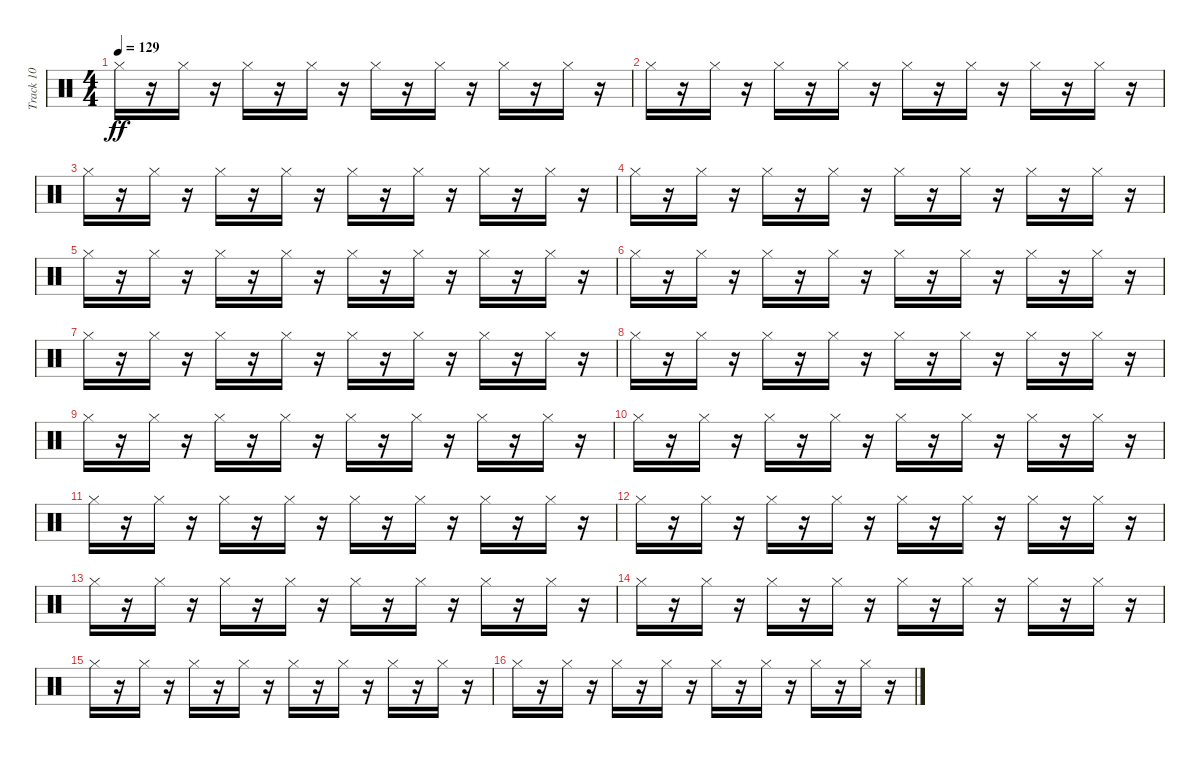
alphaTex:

\track ("Track 10" "Track 10") {instrument percussion}
\staff {score}
\articulation defaults
\ts (4 4)
\tempo 129
\clef neutral
\ks c "Hi-Hat (closed)".16{dy ff}
r.16 "Hi-Hat (closed)".16 r.16 "Hi-Hat (closed)".16 r.16 "Hi-Hat (closed)".16 r.16 "Hi-Hat (closed)".16 r.16 "Hi-Hat (closed)".16 r.16 "Hi-Hat (closed)".16 r.16 "Hi-Hat (closed)".16 r.16 |
"Hi-Hat (closed)".16 r.16 "Hi-Hat (closed)".16 r.16 "Hi-Hat (closed)".16 r.16 "Hi-Hat (closed)".16 r.16 "Hi-Hat (closed)".16 r.16 "Hi-Hat (closed)".16 r.16 "Hi-Hat (closed)".16 r.16 "Hi-Hat (closed)".16 r.16 |
"Hi-Hat (closed)".16 r.16 "Hi-Hat (closed)".16 r.16 "Hi-Hat (closed)".16 r.16 "Hi-Hat (closed)".16 r.16 "Hi-Hat (closed)".16 r.16 "Hi-Hat (closed)".16 r.16 "Hi-Hat (closed)".16 r.16 "Hi-Hat (closed)".16 r.16 |
"Hi-Hat (closed)".16 r.16 "Hi-Hat (closed)".16 r.16 "Hi-Hat (closed)".16 r.16 "Hi-Hat (closed)".16 r.16 "Hi-Hat (closed)".16 r.16 "Hi-Hat (closed)".16 r.16 "Hi-Hat (closed)".16 r.16 "Hi-Hat (closed)".16 r.16 |
"Hi-Hat (closed)".16 r.16 "Hi-Hat (closed)".16 r.16 "Hi-Hat (closed)".16 r.16 "Hi-Hat (closed)".16 r.16 "Hi-Hat (closed)".16 r.16 "Hi-Hat (closed)".16 r.16 "Hi-Hat (closed)".16 r.16 "Hi-Hat (closed)".16 r.16 |
"Hi-Hat (closed)".16 r.16 "Hi-Hat (closed)".16 r.16 "Hi-Hat (closed)".16 r.16 "Hi-Hat (closed)".16 r.16 "Hi-Hat (closed)".16 r.16 "Hi-Hat (closed)".16 r.16 "Hi-Hat (closed)".16 r.16 "Hi-Hat (closed)".16 r.16 |
"Hi-Hat (closed)".16 r.16 "Hi-Hat (closed)".16 r.16 "Hi-Hat (closed)".16 r.16 "Hi-Hat (closed)".16 r.16 "Hi-Hat (closed)".16 r.16 "Hi-Hat (closed)".16 r.16 "Hi-Hat (closed)".16 r.16 "Hi-Hat (closed)".16 r.16 |
"Hi-Hat (closed)".16 r.16 "Hi-Hat (closed)".16 r.16 "Hi-Hat (closed)".16 r.16 "Hi-Hat (closed)".16 r.16 "Hi-Hat (closed)".16 r.16 "Hi-Hat (closed)".16 r.16 "Hi-Hat (closed)".16 r.16 "Hi-Hat (closed)".16 r.16 |
"Hi-Hat (closed)".16 r.16 "Hi-Hat (closed)".16 r.16 "Hi-Hat (closed)".16 r.16 "Hi-Hat (closed)".16 r.16 "Hi-Hat (closed)".16 r.16 "Hi-Hat (closed)".16 r.16 "Hi-Hat (closed)".16 r.16 "Hi-Hat (closed)".16 r.16 |
"Hi-Hat (closed)".16 r.16 "Hi-Hat (closed)".16 r.16 "Hi-Hat (closed)".16 r.16 "Hi-Hat (closed)".16 r.16 "Hi-Hat (closed)".16 r.16 "Hi-Hat (closed)".16 r.16 "Hi-Hat (closed)".16 r.16 "Hi-Hat (closed)".16 r.16 |
"Hi-Hat (closed)".16 r.16 "Hi-Hat (closed)".16 r.16 "Hi-Hat (closed)".16 r.16 "Hi-Hat (closed)".16 r.16 "Hi-Hat (closed)".16 r.16 "Hi-Hat (closed)".16 r.16 "Hi-Hat (closed)".16 r.16 "Hi-Hat (closed)".16 r.16 |
"Hi-Hat (closed)".16 r.16 "Hi-Hat (closed)".16 r.16 "Hi-Hat (closed)".16 r.16 "Hi-Hat (closed)".16 r.16 "Hi-Hat (closed)".16 r.16 "Hi-Hat (closed)".16 r.16 "Hi-Hat (closed)".16 r.16 "Hi-Hat (closed)".16 r.16 |
"Hi-Hat (closed)".16 r.16 "Hi-Hat (closed)".16 r.16 "Hi-Hat (closed)".16 r.16 "Hi-Hat (closed)".16 r.16 "Hi-Hat (closed)".16 r.16 "Hi-Hat (closed)".16 r.16 "Hi-Hat (closed)".16 r.16 "Hi-Hat (closed)".16 r.16 |
"Hi-Hat (closed)".16 r.16 "Hi-Hat (closed)".16 r.16 "Hi-Hat (closed)".16 r.16 "Hi-Hat (closed)".16 r.16 "Hi-Hat (closed)".16 r.16 "Hi-Hat (closed)".16 r.16 "Hi-Hat (closed)".16 r.16 "Hi-Hat (closed)".16 r.16 |
"Hi-Hat (closed)".16 r.16 "Hi-Hat (closed)".16 r.16 "Hi-Hat (closed)".16 r.16 "Hi-Hat (closed)".16 r.16 "Hi-Hat (closed)".16 r.16 "Hi-Hat (closed)".16 r.16 "Hi-Hat (closed)".16 r.16 "Hi-Hat (closed)".16 r.16 |
"Hi-Hat (closed)".16 r.16 "Hi-Hat (closed)".16 r.16 "Hi-Hat (closed)".16 r.16 "Hi-Hat (closed)".16 r.16 "Hi-Hat (closed)".16 r.16 "Hi-Hat (closed)".16 r.16 "Hi-Hat (closed)".16 r.16 "Hi-Hat (closed)".16 r.16
